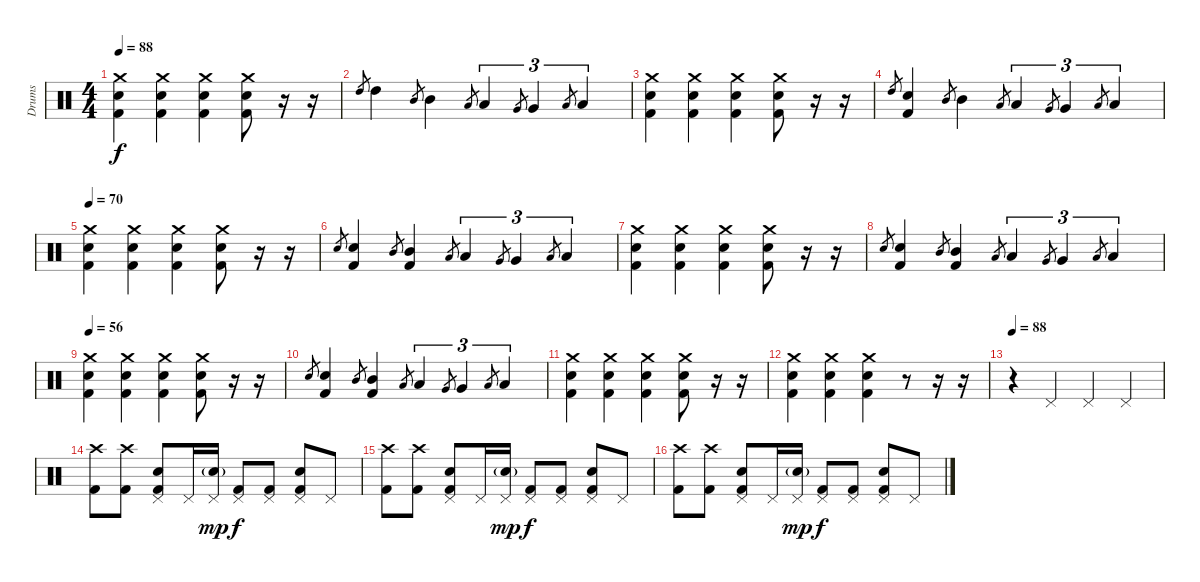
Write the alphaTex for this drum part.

\track ("Drums" "Drums") {instrument percussion}
\staff {score}
\articulation defaults
\ts (4 4)
\tempo 88
\clef neutral
\ks c
("Crash medium (hit)" "Snare (hit) 2" "Kick (hit) 2").4{dy f} ("Crash medium (hit)" "Snare (hit) 2" "Kick (hit) 2").4 ("Crash medium (hit)" "Snare (hit) 2" "Kick (hit) 2").4 ("Crash medium (hit)" "Snare (hit) 2" "Kick (hit) 2").8 r.16 r.16 |
"High Tom (hit)".8{gr} "High Tom (hit)".4 "Mid Tom (hit)".8{gr} "Mid Tom (hit)".4 "Low Tom (hit)".8{gr} "Low Tom (hit)".4{tu (3 2)} "Very Low Tom (hit)".8{gr} "Very Low Tom (hit)".4{tu (3 2)} "Low Floor Tom (hit)".8{gr} "Low Floor Tom (hit)".4{tu (3 2)} |
("Crash medium (hit)" "Snare (hit) 2" "Kick (hit) 2").4 ("Crash medium (hit)" "Snare (hit) 2" "Kick (hit) 2").4 ("Crash medium (hit)" "Snare (hit) 2" "Kick (hit) 2").4 ("Crash medium (hit)" "Snare (hit) 2" "Kick (hit) 2").8 r.16 r.16 |
"High Tom (hit)".8{gr} ("Snare (hit) 2" "Kick (hit) 2").4 "Mid Tom (hit)".8{gr} "Mid Tom (hit)".4 "Low Tom (hit)".8{gr} "Low Tom (hit)".4{tu (3 2)} "Very Low Tom (hit)".8{gr} "Very Low Tom (hit)".4{tu (3 2)} "Low Floor Tom (hit)".8{gr} "Low Floor Tom (hit)".4{tu (3 2)} |
\tempo 70
("Crash medium (hit)" "Snare (hit) 2" "Kick (hit) 2").4 ("Crash medium (hit)" "Snare (hit) 2" "Kick (hit) 2").4 ("Crash medium (hit)" "Snare (hit) 2" "Kick (hit) 2").4 ("Crash medium (hit)" "Snare (hit) 2" "Kick (hit) 2").8 r.16 r.16 |
"Snare (hit) 2".8{gr} ("Snare (hit) 2" "Kick (hit) 2").4 "Mid Tom (hit)".8{gr} ("Mid Tom (hit)" "Kick (hit) 2").4 "Low Tom (hit)".8{gr} "Low Tom (hit)".4{tu (3 2)} "Very Low Tom (hit)".8{gr} "Very Low Tom (hit)".4{tu (3 2)} "Low Floor Tom (hit)".8{gr} "Low Floor Tom (hit)".4{tu (3 2)} |
("Crash medium (hit)" "Snare (hit) 2" "Kick (hit) 2").4 ("Crash medium (hit)" "Snare (hit) 2" "Kick (hit) 2").4 ("Crash medium (hit)" "Snare (hit) 2" "Kick (hit) 2").4 ("Crash medium (hit)" "Snare (hit) 2" "Kick (hit) 2").8 r.16 r.16 |
"Snare (hit) 2".8{gr} ("Snare (hit) 2" "Kick (hit) 2").4 "Mid Tom (hit)".8{gr} ("Mid Tom (hit)" "Kick (hit) 2").4 "Low Tom (hit)".8{gr} "Low Tom (hit)".4{tu (3 2)} "Very Low Tom (hit)".8{gr} "Very Low Tom (hit)".4{tu (3 2)} "Low Floor Tom (hit)".8{gr} "Low Floor Tom (hit)".4{tu (3 2)} |
\tempo 56
("Crash medium (hit)" "Snare (hit) 2" "Kick (hit) 2").4 ("Crash medium (hit)" "Snare (hit) 2" "Kick (hit) 2").4 ("Crash medium (hit)" "Snare (hit) 2" "Kick (hit) 2").4 ("Crash medium (hit)" "Snare (hit) 2" "Kick (hit) 2").8 r.16 r.16 |
"Snare (hit) 2".8{gr} ("Snare (hit) 2" "Kick (hit) 2").4 "Mid Tom (hit)".8{gr} ("Mid Tom (hit)" "Kick (hit) 2").4 "Low Tom (hit)".8{gr} "Low Tom (hit)".4{tu (3 2)} "Very Low Tom (hit)".8{gr} "Very Low Tom (hit)".4{tu (3 2)} "Low Floor Tom (hit)".8{gr} "Low Floor Tom (hit)".4{tu (3 2)} |
("Crash medium (hit)" "Snare (hit) 2" "Kick (hit) 2").4 ("Crash medium (hit)" "Snare (hit) 2" "Kick (hit) 2").4 ("Crash medium (hit)" "Snare (hit) 2" "Kick (hit) 2").4 ("Crash medium (hit)" "Snare (hit) 2" "Kick (hit) 2").8 r.16 r.16 |
("Crash medium (hit)" "Snare (hit) 2" "Kick (hit) 2").4 ("Crash medium (hit)" "Snare (hit) 2" "Kick (hit) 2").4 ("Crash medium (hit)" "Snare (hit) 2" "Kick (hit) 2").4 r.8 r.16 r.16 |
\tempo 88
r.4 "Pedal Hi-Hat (hit)".4 "Pedal Hi-Hat (hit)".4 "Pedal Hi-Hat (hit)".4 |
("Crash high (hit)" "Kick (hit) 2").8 ("Crash high (hit)" "Kick (hit) 2").8 ("Pedal Hi-Hat (hit)" "Snare (hit) 2" "Kick (hit) 2").8 "Pedal Hi-Hat (hit)".16 ("Pedal Hi-Hat (hit)" "Snare (hit) 2"{g}).16{dy mp} ("Pedal Hi-Hat (hit)" "Kick (hit) 2").8{dy f} ("Pedal Hi-Hat (hit)" "Kick (hit) 2").8 ("Pedal Hi-Hat (hit)" "Snare (hit) 2" "Kick (hit) 2").8 "Pedal Hi-Hat (hit)".8 |
("Crash high (hit)" "Kick (hit) 2").8 ("Crash high (hit)" "Kick (hit) 2").8 ("Pedal Hi-Hat (hit)" "Snare (hit) 2" "Kick (hit) 2").8 "Pedal Hi-Hat (hit)".16 ("Pedal Hi-Hat (hit)" "Snare (hit) 2"{g}).16{dy mp} ("Pedal Hi-Hat (hit)" "Kick (hit) 2").8{dy f} ("Pedal Hi-Hat (hit)" "Kick (hit) 2").8 ("Pedal Hi-Hat (hit)" "Snare (hit) 2" "Kick (hit) 2").8 "Pedal Hi-Hat (hit)".8 |
("Crash high (hit)" "Kick (hit) 2").8 ("Crash high (hit)" "Kick (hit) 2").8 ("Pedal Hi-Hat (hit)" "Snare (hit) 2" "Kick (hit) 2").8 "Pedal Hi-Hat (hit)".16 ("Pedal Hi-Hat (hit)" "Snare (hit) 2"{g}).16{dy mp} ("Pedal Hi-Hat (hit)" "Kick (hit) 2").8{dy f} ("Pedal Hi-Hat (hit)" "Kick (hit) 2").8 ("Pedal Hi-Hat (hit)" "Snare (hit) 2" "Kick (hit) 2").8 "Pedal Hi-Hat (hit)".8
